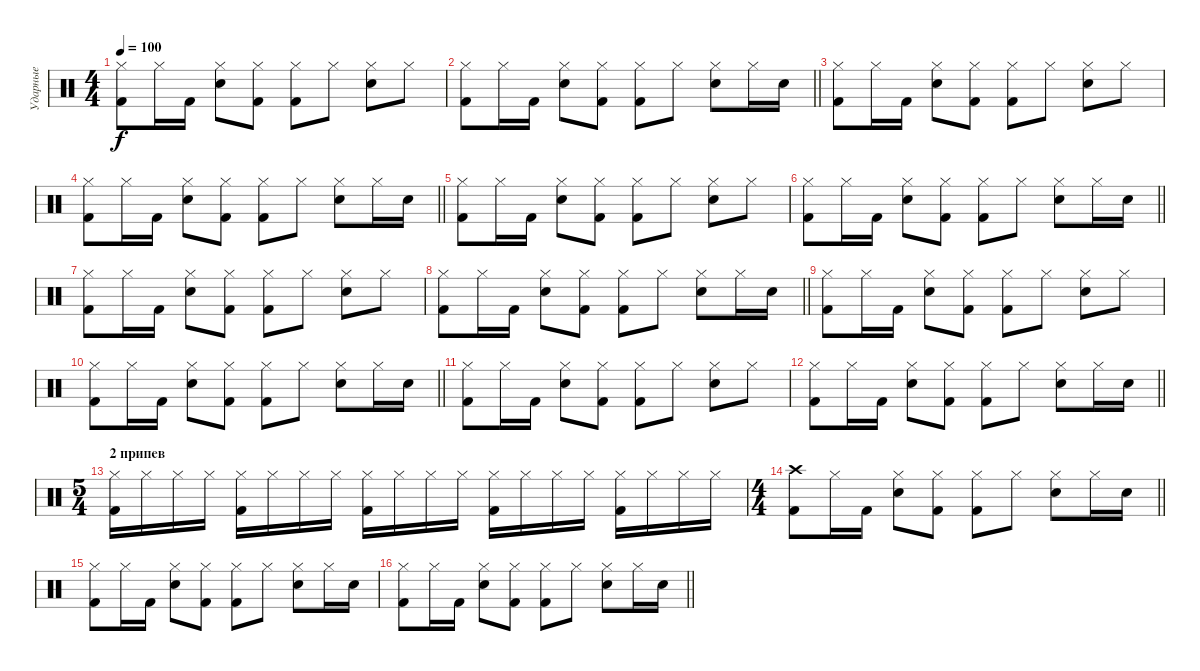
\track ("Ударные" "Ударные") {instrument percussion}
\staff {score}
\articulation defaults
\ts (4 4)
\tempo 100
\clef neutral
\ks c
("Kick (hit) 2" "Hi-Hat (closed)").8{dy f} "Hi-Hat (closed)".16 "Kick (hit) 2".16 ("Snare (hit) 2" "Hi-Hat (closed)").8 ("Kick (hit) 2" "Hi-Hat (closed)").8 ("Kick (hit) 2" "Hi-Hat (closed)").8 "Hi-Hat (closed)".8 ("Snare (hit) 2" "Hi-Hat (closed)").8 "Hi-Hat (closed)".8 |
\barLineRight lightlight
("Kick (hit) 2" "Hi-Hat (closed)").8 "Hi-Hat (closed)".16 "Kick (hit) 2".16 ("Snare (hit) 2" "Hi-Hat (closed)").8 ("Kick (hit) 2" "Hi-Hat (closed)").8 ("Kick (hit) 2" "Hi-Hat (closed)").8 "Hi-Hat (closed)".8 ("Snare (hit) 2" "Hi-Hat (closed)").8 "Hi-Hat (closed)".16 "Snare (hit) 2".16 |
("Kick (hit) 2" "Hi-Hat (closed)").8 "Hi-Hat (closed)".16 "Kick (hit) 2".16 ("Snare (hit) 2" "Hi-Hat (closed)").8 ("Kick (hit) 2" "Hi-Hat (closed)").8 ("Kick (hit) 2" "Hi-Hat (closed)").8 "Hi-Hat (closed)".8 ("Snare (hit) 2" "Hi-Hat (closed)").8 "Hi-Hat (closed)".8 |
\barLineRight lightlight
("Kick (hit) 2" "Hi-Hat (closed)").8 "Hi-Hat (closed)".16 "Kick (hit) 2".16 ("Snare (hit) 2" "Hi-Hat (closed)").8 ("Kick (hit) 2" "Hi-Hat (closed)").8 ("Kick (hit) 2" "Hi-Hat (closed)").8 "Hi-Hat (closed)".8 ("Snare (hit) 2" "Hi-Hat (closed)").8 "Hi-Hat (closed)".16 "Snare (hit) 2".16 |
("Kick (hit) 2" "Hi-Hat (closed)").8 "Hi-Hat (closed)".16 "Kick (hit) 2".16 ("Snare (hit) 2" "Hi-Hat (closed)").8 ("Kick (hit) 2" "Hi-Hat (closed)").8 ("Kick (hit) 2" "Hi-Hat (closed)").8 "Hi-Hat (closed)".8 ("Snare (hit) 2" "Hi-Hat (closed)").8 "Hi-Hat (closed)".8 |
\barLineRight lightlight
("Kick (hit) 2" "Hi-Hat (closed)").8 "Hi-Hat (closed)".16 "Kick (hit) 2".16 ("Snare (hit) 2" "Hi-Hat (closed)").8 ("Kick (hit) 2" "Hi-Hat (closed)").8 ("Kick (hit) 2" "Hi-Hat (closed)").8 "Hi-Hat (closed)".8 ("Snare (hit) 2" "Hi-Hat (closed)").8 "Hi-Hat (closed)".16 "Snare (hit) 2".16 |
("Kick (hit) 2" "Hi-Hat (closed)").8 "Hi-Hat (closed)".16 "Kick (hit) 2".16 ("Snare (hit) 2" "Hi-Hat (closed)").8 ("Kick (hit) 2" "Hi-Hat (closed)").8 ("Kick (hit) 2" "Hi-Hat (closed)").8 "Hi-Hat (closed)".8 ("Snare (hit) 2" "Hi-Hat (closed)").8 "Hi-Hat (closed)".8 |
\barLineRight lightlight
("Kick (hit) 2" "Hi-Hat (closed)").8 "Hi-Hat (closed)".16 "Kick (hit) 2".16 ("Snare (hit) 2" "Hi-Hat (closed)").8 ("Kick (hit) 2" "Hi-Hat (closed)").8 ("Kick (hit) 2" "Hi-Hat (closed)").8 "Hi-Hat (closed)".8 ("Snare (hit) 2" "Hi-Hat (closed)").8 "Hi-Hat (closed)".16 "Snare (hit) 2".16 |
("Kick (hit) 2" "Hi-Hat (closed)").8 "Hi-Hat (closed)".16 "Kick (hit) 2".16 ("Snare (hit) 2" "Hi-Hat (closed)").8 ("Kick (hit) 2" "Hi-Hat (closed)").8 ("Kick (hit) 2" "Hi-Hat (closed)").8 "Hi-Hat (closed)".8 ("Snare (hit) 2" "Hi-Hat (closed)").8 "Hi-Hat (closed)".8 |
\barLineRight lightlight
("Kick (hit) 2" "Hi-Hat (closed)").8 "Hi-Hat (closed)".16 "Kick (hit) 2".16 ("Snare (hit) 2" "Hi-Hat (closed)").8 ("Kick (hit) 2" "Hi-Hat (closed)").8 ("Kick (hit) 2" "Hi-Hat (closed)").8 "Hi-Hat (closed)".8 ("Snare (hit) 2" "Hi-Hat (closed)").8 "Hi-Hat (closed)".16 "Snare (hit) 2".16 |
("Kick (hit) 2" "Hi-Hat (closed)").8 "Hi-Hat (closed)".16 "Kick (hit) 2".16 ("Snare (hit) 2" "Hi-Hat (closed)").8 ("Kick (hit) 2" "Hi-Hat (closed)").8 ("Kick (hit) 2" "Hi-Hat (closed)").8 "Hi-Hat (closed)".8 ("Snare (hit) 2" "Hi-Hat (closed)").8 "Hi-Hat (closed)".8 |
\barLineRight lightlight
("Kick (hit) 2" "Hi-Hat (closed)").8 "Hi-Hat (closed)".16 "Kick (hit) 2".16 ("Snare (hit) 2" "Hi-Hat (closed)").8 ("Kick (hit) 2" "Hi-Hat (closed)").8 ("Kick (hit) 2" "Hi-Hat (closed)").8 "Hi-Hat (closed)".8 ("Snare (hit) 2" "Hi-Hat (closed)").8 "Hi-Hat (closed)".16 "Snare (hit) 2".16 |
\ts (5 4)
\section ("" "2 припев")
("Hi-Hat (closed)" "Kick (hit) 2").16 "Hi-Hat (closed)".16 "Hi-Hat (closed)".16 "Hi-Hat (closed)".16 ("Hi-Hat (closed)" "Kick (hit) 2").16 "Hi-Hat (closed)".16 "Hi-Hat (closed)".16 "Hi-Hat (closed)".16 ("Hi-Hat (closed)" "Kick (hit) 2").16 "Hi-Hat (closed)".16 "Hi-Hat (closed)".16 "Hi-Hat (closed)".16 ("Hi-Hat (closed)" "Kick (hit) 2").16 "Hi-Hat (closed)".16 "Hi-Hat (closed)".16 "Hi-Hat (closed)".16 ("Hi-Hat (closed)" "Kick (hit) 2").16 "Hi-Hat (closed)".16 "Hi-Hat (closed)".16 "Hi-Hat (closed)".16 |
\ts (4 4)
\barLineRight lightlight
("Kick (hit) 2" "Crash high (hit)").8 "Hi-Hat (closed)".16 "Kick (hit) 2".16 ("Snare (hit) 2" "Hi-Hat (closed)").8 ("Kick (hit) 2" "Hi-Hat (closed)").8 ("Kick (hit) 2" "Hi-Hat (closed)").8 "Hi-Hat (closed)".8 ("Snare (hit) 2" "Hi-Hat (closed)").8 "Hi-Hat (closed)".16 "Snare (hit) 2".16 |
("Kick (hit) 2" "Hi-Hat (closed)").8 "Hi-Hat (closed)".16 "Kick (hit) 2".16 ("Snare (hit) 2" "Hi-Hat (closed)").8 ("Kick (hit) 2" "Hi-Hat (closed)").8 ("Kick (hit) 2" "Hi-Hat (closed)").8 "Hi-Hat (closed)".8 ("Snare (hit) 2" "Hi-Hat (closed)").8 "Hi-Hat (closed)".16 "Snare (hit) 2".16 |
\barLineRight lightlight
("Kick (hit) 2" "Hi-Hat (closed)").8 "Hi-Hat (closed)".16 "Kick (hit) 2".16 ("Snare (hit) 2" "Hi-Hat (closed)").8 ("Kick (hit) 2" "Hi-Hat (closed)").8 ("Kick (hit) 2" "Hi-Hat (closed)").8 "Hi-Hat (closed)".8 ("Snare (hit) 2" "Hi-Hat (closed)").8 "Hi-Hat (closed)".16 "Snare (hit) 2".16
